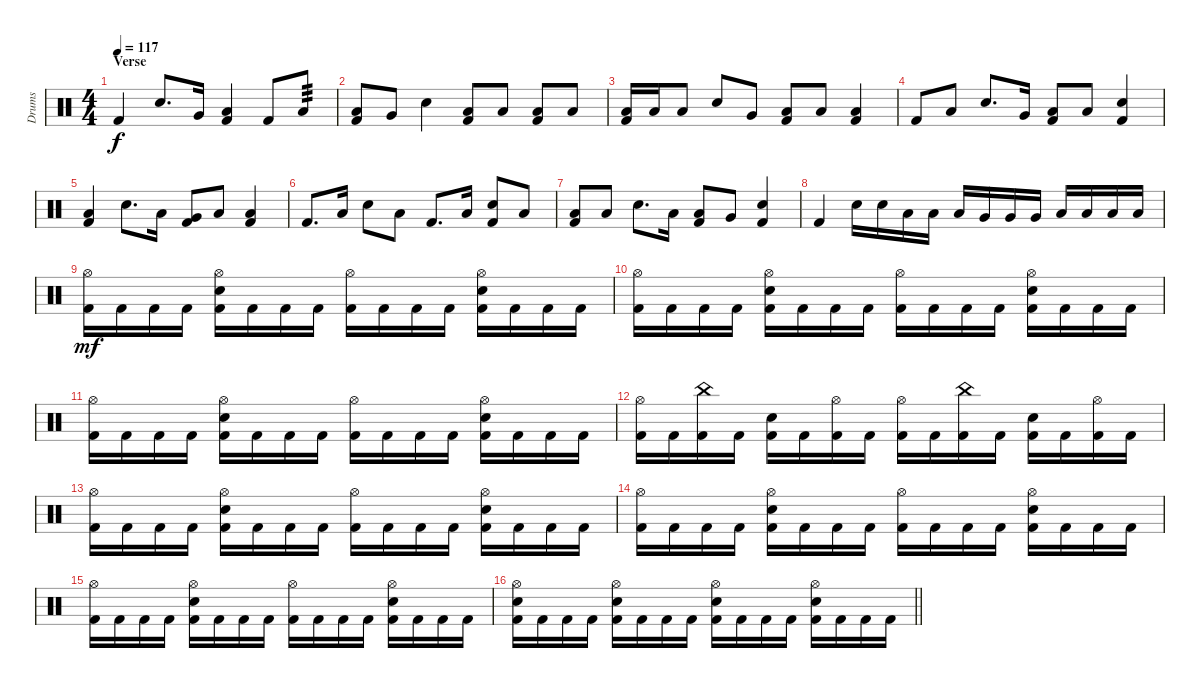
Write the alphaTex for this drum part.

\track ("Drums" "Drums") {instrument percussion}
\staff {score}
\articulation defaults
\ts (4 4)
\section ("" "Verse")
\tempo 117
\clef neutral
\ks c "Kick (hit) 2".4{dy f} "Snare (hit) 2".8{d} "Very Low Tom (hit)".16
("Low Floor Tom (hit)" "Kick (hit) 2").4 "Kick (hit) 2".8 "Low Floor Tom (hit)".8{tp 3} |
("Low Floor Tom (hit)" "Kick (hit) 2").8 "Very Low Tom (hit)".8 "Snare (hit) 2".4 ("Low Floor Tom (hit)" "Kick (hit) 2").8 "Low Tom (hit)".8 ("Low Floor Tom (hit)" "Kick (hit) 2").8 "Low Floor Tom (hit)".8 |
("Low Floor Tom (hit)" "Kick (hit) 2").16 "Low Floor Tom (hit)".16 "Low Tom (hit)".8 "Snare (hit) 2".8 "Very Low Tom (hit)".8 ("Low Floor Tom (hit)" "Kick (hit) 2").8 "Low Floor Tom (hit)".8 ("Low Floor Tom (hit)" "Kick (hit) 2").4 |
"Kick (hit) 2".8 "Low Floor Tom (hit)".8 "Snare (hit) 2".8{d} "Very Low Tom (hit)".16 ("Low Tom (hit)" "Kick (hit) 2").8 "Low Tom (hit)".8 ("Snare (hit) 2" "Kick (hit) 2").4 |
("Low Floor Tom (hit)" "Kick (hit) 2").4 "Snare (hit) 2".8{d} "Low Floor Tom (hit)".16 ("Very Low Tom (hit)" "Kick (hit) 2").8 "Low Floor Tom (hit)".8 ("Low Tom (hit)" "Kick (hit) 2").4 |
"Kick (hit) 2".8{d} "Low Floor Tom (hit)".16 "Snare (hit) 2".8 "Low Floor Tom (hit)".8 "Kick (hit) 2".8{d} "Low Tom (hit)".16 ("Snare (hit) 2" "Kick (hit) 2").8 "Low Floor Tom (hit)".8 |
("Low Floor Tom (hit)" "Kick (hit) 2").8 "Low Tom (hit)".8 "Snare (hit) 2".8{d} "Low Tom (hit)".16 ("Low Floor Tom (hit)" "Kick (hit) 2").8 "Very Low Tom (hit)".8 ("Snare (hit) 2" "Kick (hit) 2").4 |
"Kick (hit) 2".4 "Snare (hit) 2".16 "Snare (hit) 2".16 "Low Tom (hit)".16 "Low Tom (hit)".16 "Low Tom (hit)".16 "Very Low Tom (hit)".16 "Very Low Tom (hit)".16 "Very Low Tom (hit)".16 "Low Floor Tom (hit)".16 "Low Floor Tom (hit)".16 "Low Floor Tom (hit)".16 "Low Floor Tom (hit)".16 |
("Hi-Hat (open)" "Kick (hit) 2").16{dy mf} "Kick (hit) 2".16 "Kick (hit) 2".16 "Kick (hit) 2".16 ("Hi-Hat (open)" "Snare (hit) 2" "Kick (hit) 2").16 "Kick (hit) 2".16 "Kick (hit) 2".16 "Kick (hit) 2".16 ("Hi-Hat (open)" "Kick (hit) 2").16 "Kick (hit) 2".16 "Kick (hit) 2".16 "Kick (hit) 2".16 ("Hi-Hat (open)" "Snare (hit) 2" "Kick (hit) 2").16 "Kick (hit) 2".16 "Kick (hit) 2".16 "Kick (hit) 2".16 |
("Hi-Hat (open)" "Kick (hit) 2").16 "Kick (hit) 2".16 "Kick (hit) 2".16 "Kick (hit) 2".16 ("Hi-Hat (open)" "Snare (hit) 2" "Kick (hit) 2").16 "Kick (hit) 2".16 "Kick (hit) 2".16 "Kick (hit) 2".16 ("Hi-Hat (open)" "Kick (hit) 2").16 "Kick (hit) 2".16 "Kick (hit) 2".16 "Kick (hit) 2".16 ("Hi-Hat (open)" "Snare (hit) 2" "Kick (hit) 2").16 "Kick (hit) 2".16 "Kick (hit) 2".16 "Kick (hit) 2".16 |
("Hi-Hat (open)" "Kick (hit) 2").16 "Kick (hit) 2".16 "Kick (hit) 2".16 "Kick (hit) 2".16 ("Hi-Hat (open)" "Snare (hit) 2" "Kick (hit) 2").16 "Kick (hit) 2".16 "Kick (hit) 2".16 "Kick (hit) 2".16 ("Hi-Hat (open)" "Kick (hit) 2").16 "Kick (hit) 2".16 "Kick (hit) 2".16 "Kick (hit) 2".16 ("Hi-Hat (open)" "Snare (hit) 2" "Kick (hit) 2").16 "Kick (hit) 2".16 "Kick (hit) 2".16 "Kick (hit) 2".16 |
("Hi-Hat (open)" "Kick (hit) 2").16 "Kick (hit) 2".16 ("China (hit)" "Kick (hit) 2").16 "Kick (hit) 2".16 ("Snare (hit) 2" "Kick (hit) 2").16 "Kick (hit) 2".16 ("Hi-Hat (open)" "Kick (hit) 2").16 "Kick (hit) 2".16 ("Hi-Hat (open)" "Kick (hit) 2").16 "Kick (hit) 2".16 ("China (hit)" "Kick (hit) 2").16 "Kick (hit) 2".16 ("Snare (hit) 2" "Kick (hit) 2").16 "Kick (hit) 2".16 ("Hi-Hat (open)" "Kick (hit) 2").16 "Kick (hit) 2".16 |
("Hi-Hat (open)" "Kick (hit) 2").16 "Kick (hit) 2".16 "Kick (hit) 2".16 "Kick (hit) 2".16 ("Hi-Hat (open)" "Snare (hit) 2" "Kick (hit) 2").16 "Kick (hit) 2".16 "Kick (hit) 2".16 "Kick (hit) 2".16 ("Hi-Hat (open)" "Kick (hit) 2").16 "Kick (hit) 2".16 "Kick (hit) 2".16 "Kick (hit) 2".16 ("Hi-Hat (open)" "Snare (hit) 2" "Kick (hit) 2").16 "Kick (hit) 2".16 "Kick (hit) 2".16 "Kick (hit) 2".16 |
("Hi-Hat (open)" "Kick (hit) 2").16 "Kick (hit) 2".16 "Kick (hit) 2".16 "Kick (hit) 2".16 ("Hi-Hat (open)" "Snare (hit) 2" "Kick (hit) 2").16 "Kick (hit) 2".16 "Kick (hit) 2".16 "Kick (hit) 2".16 ("Hi-Hat (open)" "Kick (hit) 2").16 "Kick (hit) 2".16 "Kick (hit) 2".16 "Kick (hit) 2".16 ("Hi-Hat (open)" "Snare (hit) 2" "Kick (hit) 2").16 "Kick (hit) 2".16 "Kick (hit) 2".16 "Kick (hit) 2".16 |
("Hi-Hat (open)" "Kick (hit) 2").16 "Kick (hit) 2".16 "Kick (hit) 2".16 "Kick (hit) 2".16 ("Hi-Hat (open)" "Snare (hit) 2" "Kick (hit) 2").16 "Kick (hit) 2".16 "Kick (hit) 2".16 "Kick (hit) 2".16 ("Hi-Hat (open)" "Kick (hit) 2").16 "Kick (hit) 2".16 "Kick (hit) 2".16 "Kick (hit) 2".16 ("Hi-Hat (open)" "Snare (hit) 2" "Kick (hit) 2").16 "Kick (hit) 2".16 "Kick (hit) 2".16 "Kick (hit) 2".16 |
\barLineRight lightlight
("Hi-Hat (open)" "Snare (hit) 2" "Kick (hit) 2").16 "Kick (hit) 2".16 "Kick (hit) 2".16 "Kick (hit) 2".16 ("Hi-Hat (open)" "Snare (hit) 2" "Kick (hit) 2").16 "Kick (hit) 2".16 "Kick (hit) 2".16 "Kick (hit) 2".16 ("Hi-Hat (open)" "Snare (hit) 2" "Kick (hit) 2").16 "Kick (hit) 2".16 "Kick (hit) 2".16 "Kick (hit) 2".16 ("Hi-Hat (open)" "Snare (hit) 2" "Kick (hit) 2").16 "Kick (hit) 2".16 "Kick (hit) 2".16 "Kick (hit) 2".16
